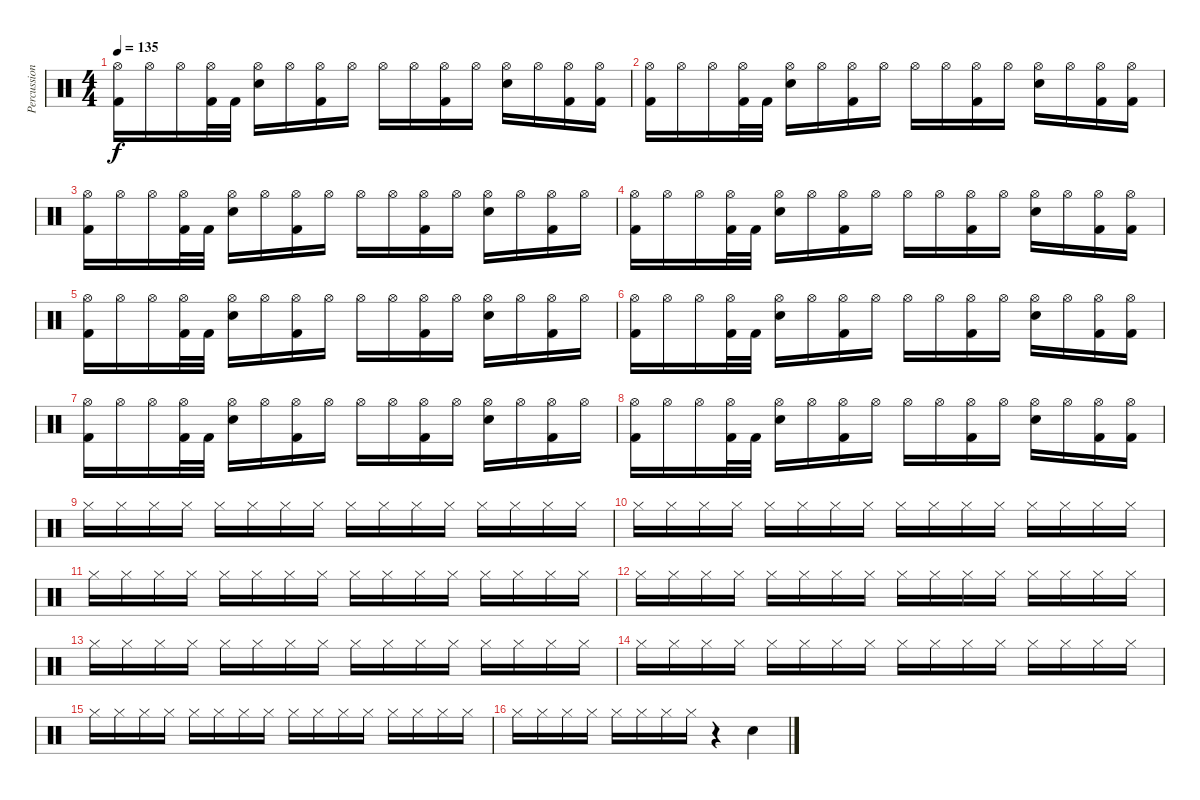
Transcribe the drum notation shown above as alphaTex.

\track ("Percussion" "Percussion") {instrument percussion}
\staff {score}
\articulation defaults
\ts (4 4)
\tempo 135
\clef neutral
\ks c
("Hi-Hat (open)" "Kick (hit) 2").16{dy f} "Hi-Hat (open)".16 "Hi-Hat (open)".16 ("Hi-Hat (open)" "Kick (hit) 2").32 "Kick (hit) 2".32 ("Hi-Hat (open)" "Snare (hit) 2").16 "Hi-Hat (open)".16 ("Hi-Hat (open)" "Kick (hit) 2").16 "Hi-Hat (open)".16 "Hi-Hat (open)".16 "Hi-Hat (open)".16 ("Hi-Hat (open)" "Kick (hit) 2").16 "Hi-Hat (open)".16 ("Hi-Hat (open)" "Snare (hit) 2").16 "Hi-Hat (open)".16 ("Hi-Hat (open)" "Kick (hit) 2").16 ("Hi-Hat (open)" "Kick (hit) 2").16 |
("Hi-Hat (open)" "Kick (hit) 2").16 "Hi-Hat (open)".16 "Hi-Hat (open)".16 ("Hi-Hat (open)" "Kick (hit) 2").32 "Kick (hit) 2".32 ("Hi-Hat (open)" "Snare (hit) 2").16 "Hi-Hat (open)".16 ("Hi-Hat (open)" "Kick (hit) 2").16 "Hi-Hat (open)".16 "Hi-Hat (open)".16 "Hi-Hat (open)".16 ("Hi-Hat (open)" "Kick (hit) 2").16 "Hi-Hat (open)".16 ("Hi-Hat (open)" "Snare (hit) 2").16 "Hi-Hat (open)".16 ("Hi-Hat (open)" "Kick (hit) 2").16 ("Hi-Hat (open)" "Kick (hit) 2").16 |
("Hi-Hat (open)" "Kick (hit) 2").16 "Hi-Hat (open)".16 "Hi-Hat (open)".16 ("Hi-Hat (open)" "Kick (hit) 2").32 "Kick (hit) 2".32 ("Hi-Hat (open)" "Snare (hit) 2").16 "Hi-Hat (open)".16 ("Hi-Hat (open)" "Kick (hit) 2").16 "Hi-Hat (open)".16 "Hi-Hat (open)".16 "Hi-Hat (open)".16 ("Hi-Hat (open)" "Kick (hit) 2").16 "Hi-Hat (open)".16 ("Hi-Hat (open)" "Snare (hit) 2").16 "Hi-Hat (open)".16 ("Hi-Hat (open)" "Kick (hit) 2").16 "Hi-Hat (open)".16 |
("Hi-Hat (open)" "Kick (hit) 2").16 "Hi-Hat (open)".16 "Hi-Hat (open)".16 ("Hi-Hat (open)" "Kick (hit) 2").32 "Kick (hit) 2".32 ("Hi-Hat (open)" "Snare (hit) 2").16 "Hi-Hat (open)".16 ("Hi-Hat (open)" "Kick (hit) 2").16 "Hi-Hat (open)".16 "Hi-Hat (open)".16 "Hi-Hat (open)".16 ("Hi-Hat (open)" "Kick (hit) 2").16 "Hi-Hat (open)".16 ("Hi-Hat (open)" "Snare (hit) 2").16 "Hi-Hat (open)".16 ("Hi-Hat (open)" "Kick (hit) 2").16 ("Hi-Hat (open)" "Kick (hit) 2").16 |
("Hi-Hat (open)" "Kick (hit) 2").16 "Hi-Hat (open)".16 "Hi-Hat (open)".16 ("Hi-Hat (open)" "Kick (hit) 2").32 "Kick (hit) 2".32 ("Hi-Hat (open)" "Snare (hit) 2").16 "Hi-Hat (open)".16 ("Hi-Hat (open)" "Kick (hit) 2").16 "Hi-Hat (open)".16 "Hi-Hat (open)".16 "Hi-Hat (open)".16 ("Hi-Hat (open)" "Kick (hit) 2").16 "Hi-Hat (open)".16 ("Hi-Hat (open)" "Snare (hit) 2").16 "Hi-Hat (open)".16 ("Hi-Hat (open)" "Kick (hit) 2").16 "Hi-Hat (open)".16 |
("Hi-Hat (open)" "Kick (hit) 2").16 "Hi-Hat (open)".16 "Hi-Hat (open)".16 ("Hi-Hat (open)" "Kick (hit) 2").32 "Kick (hit) 2".32 ("Hi-Hat (open)" "Snare (hit) 2").16 "Hi-Hat (open)".16 ("Hi-Hat (open)" "Kick (hit) 2").16 "Hi-Hat (open)".16 "Hi-Hat (open)".16 "Hi-Hat (open)".16 ("Hi-Hat (open)" "Kick (hit) 2").16 "Hi-Hat (open)".16 ("Hi-Hat (open)" "Snare (hit) 2").16 "Hi-Hat (open)".16 ("Hi-Hat (open)" "Kick (hit) 2").16 ("Hi-Hat (open)" "Kick (hit) 2").16 |
("Hi-Hat (open)" "Kick (hit) 2").16 "Hi-Hat (open)".16 "Hi-Hat (open)".16 ("Hi-Hat (open)" "Kick (hit) 2").32 "Kick (hit) 2".32 ("Hi-Hat (open)" "Snare (hit) 2").16 "Hi-Hat (open)".16 ("Hi-Hat (open)" "Kick (hit) 2").16 "Hi-Hat (open)".16 "Hi-Hat (open)".16 "Hi-Hat (open)".16 ("Hi-Hat (open)" "Kick (hit) 2").16 "Hi-Hat (open)".16 ("Hi-Hat (open)" "Snare (hit) 2").16 "Hi-Hat (open)".16 ("Hi-Hat (open)" "Kick (hit) 2").16 "Hi-Hat (open)".16 |
("Hi-Hat (open)" "Kick (hit) 2").16 "Hi-Hat (open)".16 "Hi-Hat (open)".16 ("Hi-Hat (open)" "Kick (hit) 2").32 "Kick (hit) 2".32 ("Hi-Hat (open)" "Snare (hit) 2").16 "Hi-Hat (open)".16 ("Hi-Hat (open)" "Kick (hit) 2").16 "Hi-Hat (open)".16 "Hi-Hat (open)".16 "Hi-Hat (open)".16 ("Hi-Hat (open)" "Kick (hit) 2").16 "Hi-Hat (open)".16 ("Hi-Hat (open)" "Snare (hit) 2").16 "Hi-Hat (open)".16 ("Hi-Hat (open)" "Kick (hit) 2").16 ("Hi-Hat (open)" "Kick (hit) 2").16 |
"Hi-Hat (closed)".16 "Hi-Hat (closed)".16 "Hi-Hat (closed)".16 "Hi-Hat (closed)".16 "Hi-Hat (closed)".16 "Hi-Hat (closed)".16 "Hi-Hat (closed)".16 "Hi-Hat (closed)".16 "Hi-Hat (closed)".16 "Hi-Hat (closed)".16 "Hi-Hat (closed)".16 "Hi-Hat (closed)".16 "Hi-Hat (closed)".16 "Hi-Hat (closed)".16 "Hi-Hat (closed)".16 "Hi-Hat (closed)".16 |
"Hi-Hat (closed)".16 "Hi-Hat (closed)".16 "Hi-Hat (closed)".16 "Hi-Hat (closed)".16 "Hi-Hat (closed)".16 "Hi-Hat (closed)".16 "Hi-Hat (closed)".16 "Hi-Hat (closed)".16 "Hi-Hat (closed)".16 "Hi-Hat (closed)".16 "Hi-Hat (closed)".16 "Hi-Hat (closed)".16 "Hi-Hat (closed)".16 "Hi-Hat (closed)".16 "Hi-Hat (closed)".16 "Hi-Hat (closed)".16 |
"Hi-Hat (closed)".16 "Hi-Hat (closed)".16 "Hi-Hat (closed)".16 "Hi-Hat (closed)".16 "Hi-Hat (closed)".16 "Hi-Hat (closed)".16 "Hi-Hat (closed)".16 "Hi-Hat (closed)".16 "Hi-Hat (closed)".16 "Hi-Hat (closed)".16 "Hi-Hat (closed)".16 "Hi-Hat (closed)".16 "Hi-Hat (closed)".16 "Hi-Hat (closed)".16 "Hi-Hat (closed)".16 "Hi-Hat (closed)".16 |
"Hi-Hat (closed)".16 "Hi-Hat (closed)".16 "Hi-Hat (closed)".16 "Hi-Hat (closed)".16 "Hi-Hat (closed)".16 "Hi-Hat (closed)".16 "Hi-Hat (closed)".16 "Hi-Hat (closed)".16 "Hi-Hat (closed)".16 "Hi-Hat (closed)".16 "Hi-Hat (closed)".16 "Hi-Hat (closed)".16 "Hi-Hat (closed)".16 "Hi-Hat (closed)".16 "Hi-Hat (closed)".16 "Hi-Hat (closed)".16 |
"Hi-Hat (closed)".16 "Hi-Hat (closed)".16 "Hi-Hat (closed)".16 "Hi-Hat (closed)".16 "Hi-Hat (closed)".16 "Hi-Hat (closed)".16 "Hi-Hat (closed)".16 "Hi-Hat (closed)".16 "Hi-Hat (closed)".16 "Hi-Hat (closed)".16 "Hi-Hat (closed)".16 "Hi-Hat (closed)".16 "Hi-Hat (closed)".16 "Hi-Hat (closed)".16 "Hi-Hat (closed)".16 "Hi-Hat (closed)".16 |
"Hi-Hat (closed)".16 "Hi-Hat (closed)".16 "Hi-Hat (closed)".16 "Hi-Hat (closed)".16 "Hi-Hat (closed)".16 "Hi-Hat (closed)".16 "Hi-Hat (closed)".16 "Hi-Hat (closed)".16 "Hi-Hat (closed)".16 "Hi-Hat (closed)".16 "Hi-Hat (closed)".16 "Hi-Hat (closed)".16 "Hi-Hat (closed)".16 "Hi-Hat (closed)".16 "Hi-Hat (closed)".16 "Hi-Hat (closed)".16 |
"Hi-Hat (closed)".16 "Hi-Hat (closed)".16 "Hi-Hat (closed)".16 "Hi-Hat (closed)".16 "Hi-Hat (closed)".16 "Hi-Hat (closed)".16 "Hi-Hat (closed)".16 "Hi-Hat (closed)".16 "Hi-Hat (closed)".16 "Hi-Hat (closed)".16 "Hi-Hat (closed)".16 "Hi-Hat (closed)".16 "Hi-Hat (closed)".16 "Hi-Hat (closed)".16 "Hi-Hat (closed)".16 "Hi-Hat (closed)".16 |
"Hi-Hat (closed)".16 "Hi-Hat (closed)".16 "Hi-Hat (closed)".16 "Hi-Hat (closed)".16 "Hi-Hat (closed)".16 "Hi-Hat (closed)".16 "Hi-Hat (closed)".16 "Hi-Hat (closed)".16 r.4 "Snare (hit) 2".4
